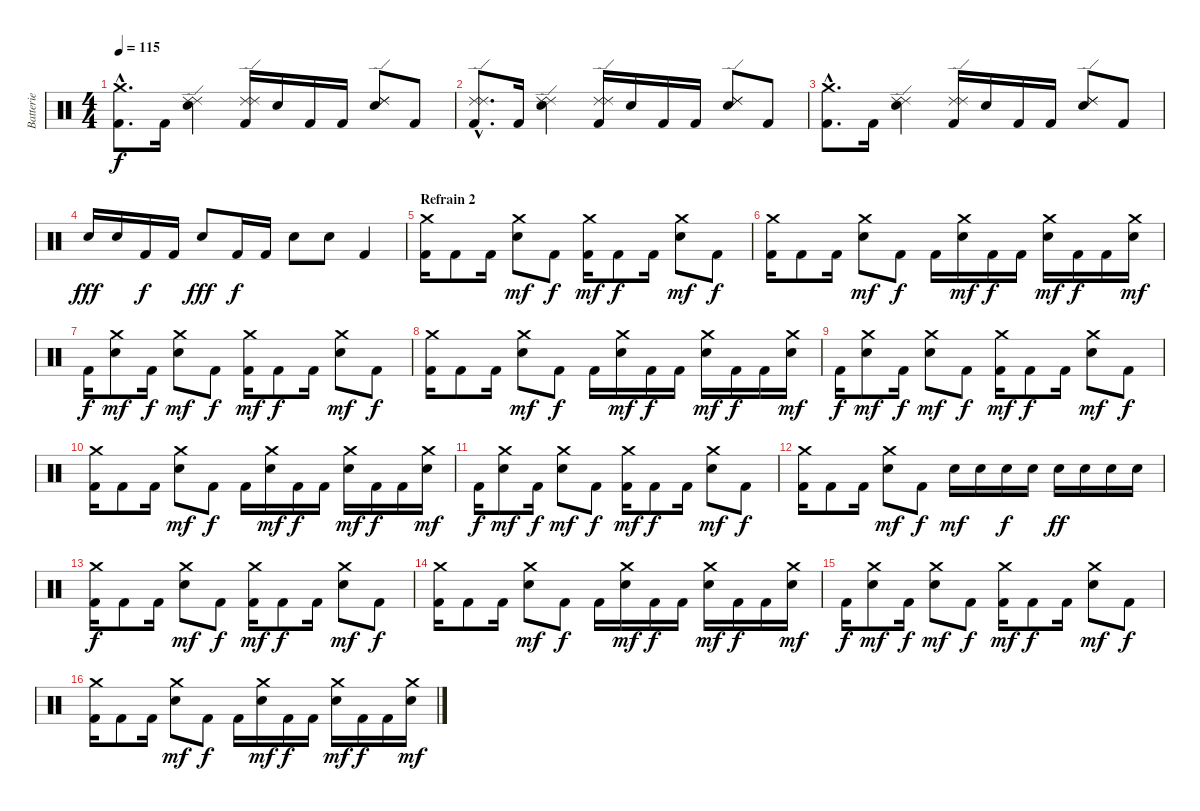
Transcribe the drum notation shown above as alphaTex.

\track ("Batterie" "Batterie") {instrument percussion}
\staff {score}
\articulation defaults
\ts (4 4)
\tempo 115
\clef neutral
\ks c
("Crash medium (hit)"{hac} "Kick (hit) 2"{hac}).8{d dy f} "Kick (hit) 2".16 ("Ride (edge) 2" "Ride (edge) 2" "Electric Snare (hit)").4 ("Ride (edge) 2" "Ride (edge) 2" "Kick (hit) 2").16 "Electric Snare (hit)".16 "Kick (hit) 2".16 "Kick (hit) 2".16 ("Ride (edge) 2" "Ride (edge) 2" "Electric Snare (hit)").8 "Kick (hit) 2".8 |
("Ride (edge) 2"{hac} "Ride (edge) 2"{hac} "Kick (hit) 2"{hac}).8{d} "Kick (hit) 2".16 ("Ride (edge) 2" "Ride (edge) 2" "Electric Snare (hit)").4 ("Ride (edge) 2" "Ride (edge) 2" "Kick (hit) 2").16 "Electric Snare (hit)".16 "Kick (hit) 2".16 "Kick (hit) 2".16 ("Ride (edge) 2" "Ride (edge) 2" "Electric Snare (hit)").8 "Kick (hit) 2".8 |
("Crash medium (hit)"{hac} "Kick (hit) 2"{hac}).8{d} "Kick (hit) 2".16 ("Ride (edge) 2" "Ride (edge) 2" "Electric Snare (hit)").4 ("Ride (edge) 2" "Ride (edge) 2" "Kick (hit) 2").16 "Electric Snare (hit)".16 "Kick (hit) 2".16 "Kick (hit) 2".16 ("Ride (edge) 2" "Ride (edge) 2" "Electric Snare (hit)").8 "Kick (hit) 2".8 |
"Electric Snare (hit)".16{dy fff} "Electric Snare (hit)".16 "Kick (hit) 2".16{dy f} "Kick (hit) 2".16 "Electric Snare (hit)".8{dy fff} "Kick (hit) 2".16{dy f} "Kick (hit) 2".16 "Electric Snare (hit)".8 "Electric Snare (hit)".8 "Kick (hit) 2".4 |
\section ("" "Refrain 2")
("Crash medium (hit)" "Kick (hit) 2").16 "Kick (hit) 2".8 "Kick (hit) 2".16 ("Crash medium (hit)" "Electric Snare (hit)").8{dy mf} "Kick (hit) 2".8{dy f} ("Crash medium (hit)" "Kick (hit) 2").16{dy mf} "Kick (hit) 2".8{dy f} "Kick (hit) 2".16 ("Crash medium (hit)" "Electric Snare (hit)").8{dy mf} "Kick (hit) 2".8{dy f} |
("Crash medium (hit)" "Kick (hit) 2").16 "Kick (hit) 2".8 "Kick (hit) 2".16 ("Crash medium (hit)" "Electric Snare (hit)").8{dy mf} "Kick (hit) 2".8{dy f} "Kick (hit) 2".16 ("Crash medium (hit)" "Electric Snare (hit)").16{dy mf} "Kick (hit) 2".16{dy f} "Kick (hit) 2".16 ("Crash medium (hit)" "Electric Snare (hit)").16{dy mf} "Kick (hit) 2".16{dy f} "Kick (hit) 2".16 ("Crash medium (hit)" "Electric Snare (hit)").16{dy mf} |
"Kick (hit) 2".16{dy f} ("Crash medium (hit)" "Electric Snare (hit)").8{dy mf} "Kick (hit) 2".16{dy f} ("Crash medium (hit)" "Electric Snare (hit)").8{dy mf} "Kick (hit) 2".8{dy f} ("Crash medium (hit)" "Kick (hit) 2").16{dy mf} "Kick (hit) 2".8{dy f} "Kick (hit) 2".16 ("Crash medium (hit)" "Electric Snare (hit)").8{dy mf} "Kick (hit) 2".8{dy f} |
("Crash medium (hit)" "Kick (hit) 2").16 "Kick (hit) 2".8 "Kick (hit) 2".16 ("Crash medium (hit)" "Electric Snare (hit)").8{dy mf} "Kick (hit) 2".8{dy f} "Kick (hit) 2".16 ("Crash medium (hit)" "Electric Snare (hit)").16{dy mf} "Kick (hit) 2".16{dy f} "Kick (hit) 2".16 ("Crash medium (hit)" "Electric Snare (hit)").16{dy mf} "Kick (hit) 2".16{dy f} "Kick (hit) 2".16 ("Crash medium (hit)" "Electric Snare (hit)").16{dy mf} |
"Kick (hit) 2".16{dy f} ("Crash medium (hit)" "Electric Snare (hit)").8{dy mf} "Kick (hit) 2".16{dy f} ("Crash medium (hit)" "Electric Snare (hit)").8{dy mf} "Kick (hit) 2".8{dy f} ("Crash medium (hit)" "Kick (hit) 2").16{dy mf} "Kick (hit) 2".8{dy f} "Kick (hit) 2".16 ("Crash medium (hit)" "Electric Snare (hit)").8{dy mf} "Kick (hit) 2".8{dy f} |
("Crash medium (hit)" "Kick (hit) 2").16 "Kick (hit) 2".8 "Kick (hit) 2".16 ("Crash medium (hit)" "Electric Snare (hit)").8{dy mf} "Kick (hit) 2".8{dy f} "Kick (hit) 2".16 ("Crash medium (hit)" "Electric Snare (hit)").16{dy mf} "Kick (hit) 2".16{dy f} "Kick (hit) 2".16 ("Crash medium (hit)" "Electric Snare (hit)").16{dy mf} "Kick (hit) 2".16{dy f} "Kick (hit) 2".16 ("Crash medium (hit)" "Electric Snare (hit)").16{dy mf} |
"Kick (hit) 2".16{dy f} ("Crash medium (hit)" "Electric Snare (hit)").8{dy mf} "Kick (hit) 2".16{dy f} ("Crash medium (hit)" "Electric Snare (hit)").8{dy mf} "Kick (hit) 2".8{dy f} ("Crash medium (hit)" "Kick (hit) 2").16{dy mf} "Kick (hit) 2".8{dy f} "Kick (hit) 2".16 ("Crash medium (hit)" "Electric Snare (hit)").8{dy mf} "Kick (hit) 2".8{dy f} |
("Crash medium (hit)" "Kick (hit) 2").16 "Kick (hit) 2".8 "Kick (hit) 2".16 ("Crash medium (hit)" "Electric Snare (hit)").8{dy mf} "Kick (hit) 2".8{dy f} "Electric Snare (hit)".16{dy mf} "Electric Snare (hit)".16 "Electric Snare (hit)".16{dy f} "Electric Snare (hit)".16 "Electric Snare (hit)".16{dy ff} "Electric Snare (hit)".16 "Electric Snare (hit)".16 "Electric Snare (hit)".16 |
("Crash medium (hit)" "Kick (hit) 2").16{dy f} "Kick (hit) 2".8 "Kick (hit) 2".16 ("Crash medium (hit)" "Electric Snare (hit)").8{dy mf} "Kick (hit) 2".8{dy f} ("Crash medium (hit)" "Kick (hit) 2").16{dy mf} "Kick (hit) 2".8{dy f} "Kick (hit) 2".16 ("Crash medium (hit)" "Electric Snare (hit)").8{dy mf} "Kick (hit) 2".8{dy f} |
("Crash medium (hit)" "Kick (hit) 2").16 "Kick (hit) 2".8 "Kick (hit) 2".16 ("Crash medium (hit)" "Electric Snare (hit)").8{dy mf} "Kick (hit) 2".8{dy f} "Kick (hit) 2".16 ("Crash medium (hit)" "Electric Snare (hit)").16{dy mf} "Kick (hit) 2".16{dy f} "Kick (hit) 2".16 ("Crash medium (hit)" "Electric Snare (hit)").16{dy mf} "Kick (hit) 2".16{dy f} "Kick (hit) 2".16 ("Crash medium (hit)" "Electric Snare (hit)").16{dy mf} |
"Kick (hit) 2".16{dy f} ("Crash medium (hit)" "Electric Snare (hit)").8{dy mf} "Kick (hit) 2".16{dy f} ("Crash medium (hit)" "Electric Snare (hit)").8{dy mf} "Kick (hit) 2".8{dy f} ("Crash medium (hit)" "Kick (hit) 2").16{dy mf} "Kick (hit) 2".8{dy f} "Kick (hit) 2".16 ("Crash medium (hit)" "Electric Snare (hit)").8{dy mf} "Kick (hit) 2".8{dy f} |
("Crash medium (hit)" "Kick (hit) 2").16 "Kick (hit) 2".8 "Kick (hit) 2".16 ("Crash medium (hit)" "Electric Snare (hit)").8{dy mf} "Kick (hit) 2".8{dy f} "Kick (hit) 2".16 ("Crash medium (hit)" "Electric Snare (hit)").16{dy mf} "Kick (hit) 2".16{dy f} "Kick (hit) 2".16 ("Crash medium (hit)" "Electric Snare (hit)").16{dy mf} "Kick (hit) 2".16{dy f} "Kick (hit) 2".16 ("Crash medium (hit)" "Electric Snare (hit)").16{dy mf}
